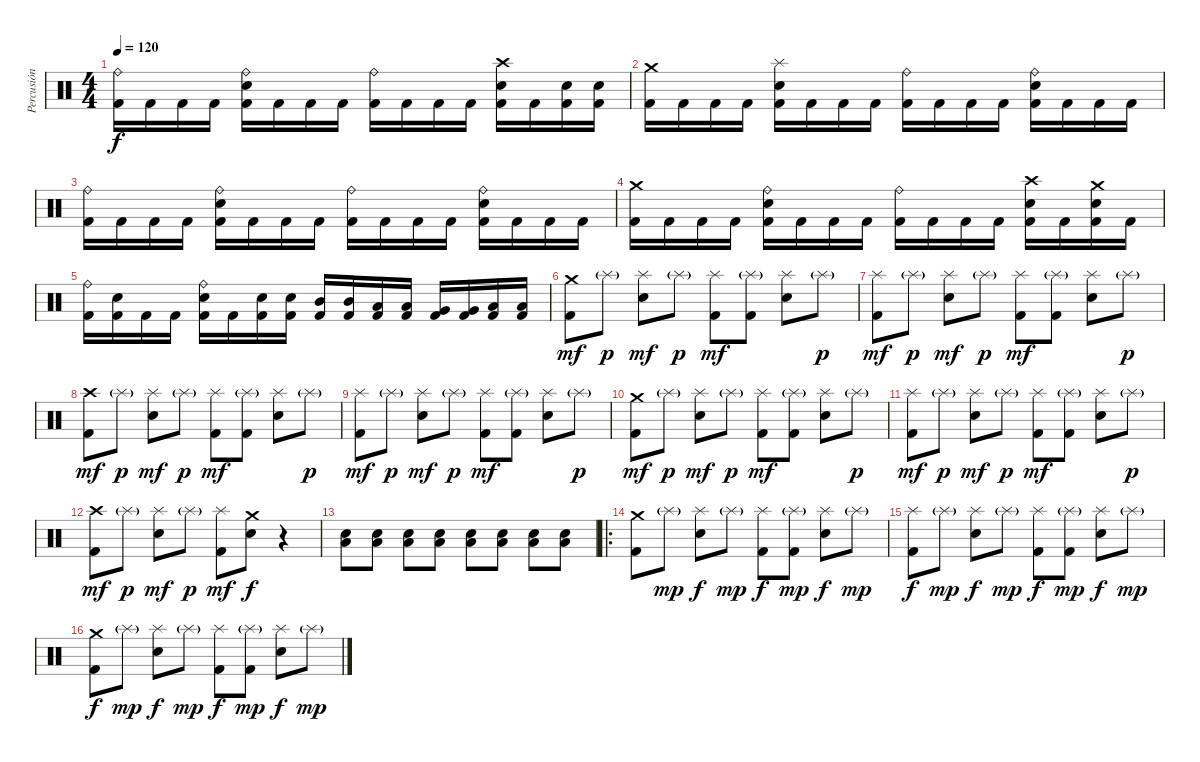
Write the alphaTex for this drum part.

\track ("Percusión" "Percusión") {instrument percussion}
\staff {score}
\articulation defaults
\ts (4 4)
\tempo 120
\clef neutral
\ks c
("Ride (bell)" "Kick (hit) 2").16{dy f} "Kick (hit) 2".16 "Kick (hit) 2".16 "Kick (hit) 2".16 ("Ride (bell)" "Electric Snare (hit)" "Kick (hit) 2").16 "Kick (hit) 2".16 "Kick (hit) 2".16 "Kick (hit) 2".16 ("Ride (bell)" "Kick (hit) 2").16 "Kick (hit) 2".16 "Kick (hit) 2".16 "Kick (hit) 2".16 ("Crash high (hit)" "Electric Snare (hit)" "Kick (hit) 2").16 "Kick (hit) 2".16 ("Electric Snare (hit)" "Kick (hit) 2").16 ("Electric Snare (hit)" "Kick (hit) 2").16 |
("Crash medium (hit)" "Kick (hit) 2").16 "Kick (hit) 2".16 "Kick (hit) 2".16 "Kick (hit) 2".16 ("Splash (hit)" "Electric Snare (hit)" "Kick (hit) 2").16 "Kick (hit) 2".16 "Kick (hit) 2".16 "Kick (hit) 2".16 ("Ride (bell)" "Kick (hit) 2").16 "Kick (hit) 2".16 "Kick (hit) 2".16 "Kick (hit) 2".16 ("Ride (bell)" "Electric Snare (hit)" "Kick (hit) 2").16 "Kick (hit) 2".16 "Kick (hit) 2".16 "Kick (hit) 2".16 |
("Ride (bell)" "Kick (hit) 2").16 "Kick (hit) 2".16 "Kick (hit) 2".16 "Kick (hit) 2".16 ("Ride (bell)" "Electric Snare (hit)" "Kick (hit) 2").16 "Kick (hit) 2".16 "Kick (hit) 2".16 "Kick (hit) 2".16 ("Ride (bell)" "Kick (hit) 2").16 "Kick (hit) 2".16 "Kick (hit) 2".16 "Kick (hit) 2".16 ("Ride (bell)" "Electric Snare (hit)" "Kick (hit) 2").16 "Kick (hit) 2".16 "Kick (hit) 2".16 "Kick (hit) 2".16 |
("Crash medium (hit)" "Kick (hit) 2").16 "Kick (hit) 2".16 "Kick (hit) 2".16 "Kick (hit) 2".16 ("Ride (bell)" "Electric Snare (hit)" "Kick (hit) 2").16 "Kick (hit) 2".16 "Kick (hit) 2".16 "Kick (hit) 2".16 ("Ride (bell)" "Kick (hit) 2").16 "Kick (hit) 2".16 "Kick (hit) 2".16 "Kick (hit) 2".16 ("Crash high (hit)" "Electric Snare (hit)" "Kick (hit) 2").16 "Kick (hit) 2".16 ("Crash medium (hit)" "Electric Snare (hit)" "Kick (hit) 2").16 "Kick (hit) 2".16 |
("Ride (bell)" "Kick (hit) 2").16 ("Electric Snare (hit)" "Kick (hit) 2").16 "Kick (hit) 2".16 "Kick (hit) 2".16 ("Ride (bell)" "Electric Snare (hit)" "Kick (hit) 2").16 "Kick (hit) 2".16 ("Electric Snare (hit)" "Kick (hit) 2").16 ("Electric Snare (hit)" "Kick (hit) 2").16 ("Mid Tom (hit)" "Kick (hit) 2").16 ("Mid Tom (hit)" "Kick (hit) 2").16 ("Low Tom (hit)" "Kick (hit) 2").16 ("Low Tom (hit)" "Kick (hit) 2").16 ("Very Low Tom (hit)" "Kick (hit) 2").16 ("Very Low Tom (hit)" "Kick (hit) 2").16 ("Low Floor Tom (hit)" "Kick (hit) 2").16 ("Low Floor Tom (hit)" "Kick (hit) 2").16 |
("Crash medium (hit)" "Kick (hit) 2").8{dy mf} "Splash (hit)"{g}.8{dy p} ("Splash (hit)" "Electric Snare (hit)").8{dy mf} "Splash (hit)"{g}.8{dy p} ("Splash (hit)" "Kick (hit) 2").8{dy mf} ("Splash (hit)"{g} "Kick (hit) 2").8 ("Splash (hit)" "Electric Snare (hit)").8 "Splash (hit)"{g}.8{dy p} |
("Splash (hit)" "Kick (hit) 2").8{dy mf} "Splash (hit)"{g}.8{dy p} ("Splash (hit)" "Electric Snare (hit)").8{dy mf} "Splash (hit)"{g}.8{dy p} ("Splash (hit)" "Kick (hit) 2").8{dy mf} ("Splash (hit)"{g} "Kick (hit) 2").8 ("Splash (hit)" "Electric Snare (hit)").8 "Splash (hit)"{g}.8{dy p} |
("Crash high (hit)" "Kick (hit) 2").8{dy mf} "Splash (hit)"{g}.8{dy p} ("Splash (hit)" "Electric Snare (hit)").8{dy mf} "Splash (hit)"{g}.8{dy p} ("Splash (hit)" "Kick (hit) 2").8{dy mf} ("Splash (hit)"{g} "Kick (hit) 2").8 ("Splash (hit)" "Electric Snare (hit)").8 "Splash (hit)"{g}.8{dy p} |
("Splash (hit)" "Kick (hit) 2").8{dy mf} "Splash (hit)"{g}.8{dy p} ("Splash (hit)" "Electric Snare (hit)").8{dy mf} "Splash (hit)"{g}.8{dy p} ("Splash (hit)" "Kick (hit) 2").8{dy mf} ("Splash (hit)"{g} "Kick (hit) 2").8 ("Splash (hit)" "Electric Snare (hit)").8 "Splash (hit)"{g}.8{dy p} |
("Crash medium (hit)" "Kick (hit) 2").8{dy mf} "Splash (hit)"{g}.8{dy p} ("Splash (hit)" "Electric Snare (hit)").8{dy mf} "Splash (hit)"{g}.8{dy p} ("Splash (hit)" "Kick (hit) 2").8{dy mf} ("Splash (hit)"{g} "Kick (hit) 2").8 ("Splash (hit)" "Electric Snare (hit)").8 "Splash (hit)"{g}.8{dy p} |
("Splash (hit)" "Kick (hit) 2").8{dy mf} "Splash (hit)"{g}.8{dy p} ("Splash (hit)" "Electric Snare (hit)").8{dy mf} "Splash (hit)"{g}.8{dy p} ("Splash (hit)" "Kick (hit) 2").8{dy mf} ("Splash (hit)"{g} "Kick (hit) 2").8 ("Splash (hit)" "Electric Snare (hit)").8 "Splash (hit)"{g}.8{dy p} |
("Crash high (hit)" "Kick (hit) 2").8{dy mf} "Splash (hit)"{g}.8{dy p} ("Splash (hit)" "Electric Snare (hit)").8{dy mf} "Splash (hit)"{g}.8{dy p} ("Splash (hit)" "Kick (hit) 2").8{dy mf} ("Crash medium (hit)" "Electric Snare (hit)").8{dy f} r.4 |
("Low Floor Tom (hit)" "Electric Snare (hit)").8 ("Low Floor Tom (hit)" "Electric Snare (hit)").8 ("Low Floor Tom (hit)" "Electric Snare (hit)").8 ("Low Floor Tom (hit)" "Electric Snare (hit)").8 ("Low Floor Tom (hit)" "Electric Snare (hit)").8 ("Low Floor Tom (hit)" "Electric Snare (hit)").8 ("Low Floor Tom (hit)" "Electric Snare (hit)").8 ("Low Floor Tom (hit)" "Electric Snare (hit)").8 |
\ro
("Crash medium (hit)" "Kick (hit) 2").8 "Splash (hit)"{g}.8{dy mp} ("Splash (hit)" "Electric Snare (hit)").8{dy f} "Splash (hit)"{g}.8{dy mp} ("Splash (hit)" "Kick (hit) 2").8{dy f} ("Splash (hit)"{g} "Kick (hit) 2").8{dy mp} ("Splash (hit)" "Electric Snare (hit)").8{dy f} "Splash (hit)"{g}.8{dy mp} |
("Splash (hit)" "Kick (hit) 2").8{dy f} "Splash (hit)"{g}.8{dy mp} ("Splash (hit)" "Electric Snare (hit)").8{dy f} "Splash (hit)"{g}.8{dy mp} ("Splash (hit)" "Kick (hit) 2").8{dy f} ("Splash (hit)"{g} "Kick (hit) 2").8{dy mp} ("Splash (hit)" "Electric Snare (hit)").8{dy f} "Splash (hit)"{g}.8{dy mp} |
("Crash medium (hit)" "Kick (hit) 2").8{dy f} "Splash (hit)"{g}.8{dy mp} ("Splash (hit)" "Electric Snare (hit)").8{dy f} "Splash (hit)"{g}.8{dy mp} ("Splash (hit)" "Kick (hit) 2").8{dy f} ("Splash (hit)"{g} "Kick (hit) 2").8{dy mp} ("Splash (hit)" "Electric Snare (hit)").8{dy f} "Splash (hit)"{g}.8{dy mp}
